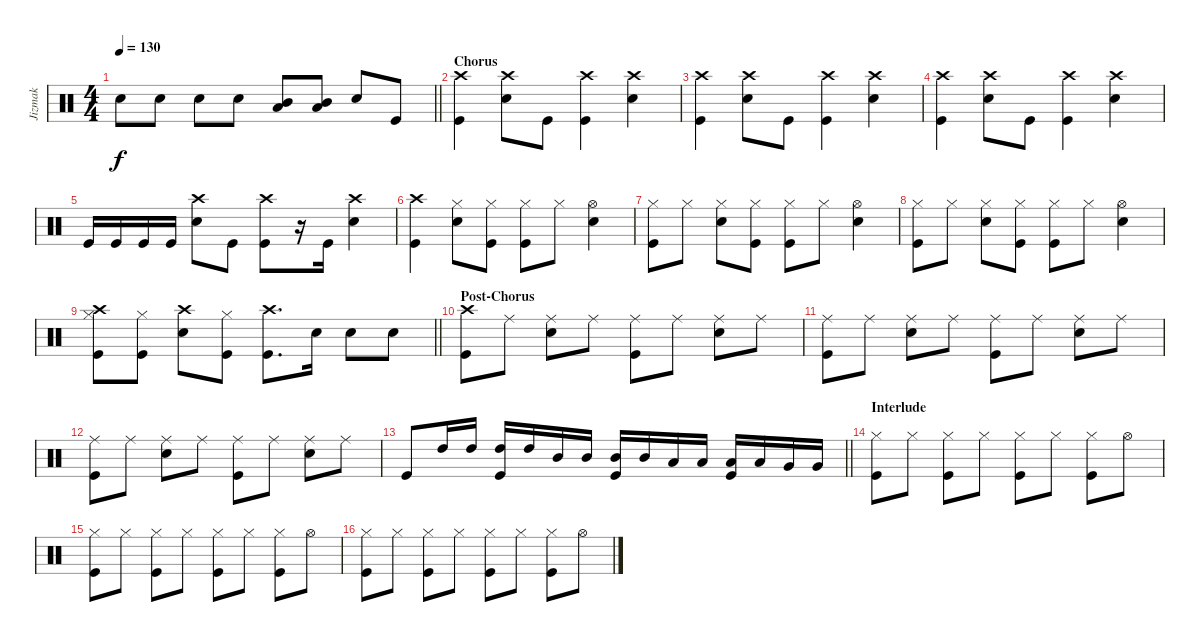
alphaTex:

\track ("Jizmak" "Jizmak") {instrument percussion}
\staff {score}
\articulation defaults
\ts (4 4)
\tempo 130
\clef neutral
\barLineRight lightlight
\ks c "Snare (hit) 2".8{dy f} "Snare (hit) 2".8 "Snare (hit) 2".8 "Snare (hit) 2".8
("Mid Tom (hit)" "Low Tom (hit)").8 ("Mid Tom (hit)" "Low Tom (hit)").8 "Snare (hit) 2".8 "Kick (hit)".8 |
\section ("" "Chorus")
("Crash high (hit)" "Kick (hit)").4 ("Crash high (hit)" "Snare (hit) 2").8 "Kick (hit)".8 ("Crash high (hit)" "Kick (hit)").4 ("Crash high (hit)" "Snare (hit) 2").4 |
("Crash high (hit)" "Kick (hit)").4 ("Crash high (hit)" "Snare (hit) 2").8 "Kick (hit)".8 ("Crash high (hit)" "Kick (hit)").4 ("Crash high (hit)" "Snare (hit) 2").4 |
("Crash high (hit)" "Kick (hit)").4 ("Crash high (hit)" "Snare (hit) 2").8 "Kick (hit)".8 ("Crash high (hit)" "Kick (hit)").4 ("Crash high (hit)" "Snare (hit) 2").4 |
"Kick (hit)".16 "Kick (hit)".16 "Kick (hit)".16 "Kick (hit)".16 ("Crash high (hit)" "Snare (hit) 2").8 "Kick (hit)".8 ("Crash high (hit)" "Kick (hit)").8 r.16 "Kick (hit)".16 ("Crash high (hit)" "Snare (hit) 2").4 |
("Crash high (hit)" "Kick (hit)").4 ("Hi-Hat (closed)" "Snare (hit) 2").8 ("Hi-Hat (closed)" "Kick (hit)").8 ("Hi-Hat (closed)" "Kick (hit)").8 "Hi-Hat (closed)".8 ("Hi-Hat (open)" "Snare (hit) 2").4 |
("Hi-Hat (closed)" "Kick (hit)").8 "Hi-Hat (closed)".8 ("Hi-Hat (closed)" "Snare (hit) 2").8 ("Hi-Hat (closed)" "Kick (hit)").8 ("Hi-Hat (closed)" "Kick (hit)").8 "Hi-Hat (closed)".8 ("Hi-Hat (open)" "Snare (hit) 2").4 |
("Hi-Hat (closed)" "Kick (hit)").8 "Hi-Hat (closed)".8 ("Hi-Hat (closed)" "Snare (hit) 2").8 ("Hi-Hat (closed)" "Kick (hit)").8 ("Hi-Hat (closed)" "Kick (hit)").8 "Hi-Hat (closed)".8 ("Hi-Hat (open)" "Snare (hit) 2").4 |
\barLineRight lightlight
("Crash high (hit)" "Hi-Hat (closed)" "Kick (hit)").8 ("Hi-Hat (closed)" "Kick (hit)").8 ("Crash high (hit)" "Snare (hit) 2").8 ("Hi-Hat (closed)" "Kick (hit)").8 ("Crash high (hit)" "Kick (hit)").8{d} "Snare (hit) 2".16 "Snare (hit) 2".8 "Snare (hit) 2".8 |
\section ("" "Post-Chorus")
("Crash high (hit)" "Kick (hit)").8 "Ride (middle)".8 ("Ride (middle)" "Snare (hit) 2").8 "Ride (middle)".8 ("Ride (middle)" "Kick (hit)").8 "Ride (middle)".8 ("Ride (middle)" "Snare (hit) 2").8 "Ride (middle)".8 |
("Ride (middle)" "Kick (hit)").8 "Ride (middle)".8 ("Ride (middle)" "Snare (hit) 2").8 "Ride (middle)".8 ("Ride (middle)" "Kick (hit)").8 "Ride (middle)".8 ("Ride (middle)" "Snare (hit) 2").8 "Ride (middle)".8 |
("Ride (middle)" "Kick (hit)").8 "Ride (middle)".8 ("Ride (middle)" "Snare (hit) 2").8 "Ride (middle)".8 ("Ride (middle)" "Kick (hit)").8 "Ride (middle)".8 ("Ride (middle)" "Snare (hit) 2").8 "Ride (middle)".8 |
\barLineRight lightlight "Kick (hit)".8 "High Tom (hit)".16 "High Tom (hit)".16
("High Tom (hit)" "Kick (hit)").16 "High Tom (hit)".16 "Mid Tom (hit)".16 "Mid Tom (hit)".16 ("Mid Tom (hit)" "Kick (hit)").16 "Mid Tom (hit)".16 "Low Tom (hit)".16 "Low Tom (hit)".16 ("Low Tom (hit)" "Kick (hit)").16 "Low Tom (hit)".16 "Very Low Tom (hit)".16 "Very Low Tom (hit)".16 |
\section ("" "Interlude")
("Hi-Hat (closed)" "Kick (hit)").8 "Hi-Hat (closed)".8 ("Hi-Hat (closed)" "Kick (hit)").8 "Hi-Hat (closed)".8 ("Hi-Hat (closed)" "Kick (hit)").8 "Hi-Hat (closed)".8 ("Hi-Hat (closed)" "Kick (hit)").8 "Hi-Hat (open)".8 |
("Hi-Hat (closed)" "Kick (hit)").8 "Hi-Hat (closed)".8 ("Hi-Hat (closed)" "Kick (hit)").8 "Hi-Hat (closed)".8 ("Hi-Hat (closed)" "Kick (hit)").8 "Hi-Hat (closed)".8 ("Hi-Hat (closed)" "Kick (hit)").8 "Hi-Hat (open)".8 |
("Hi-Hat (closed)" "Kick (hit)").8 "Hi-Hat (closed)".8 ("Hi-Hat (closed)" "Kick (hit)").8 "Hi-Hat (closed)".8 ("Hi-Hat (closed)" "Kick (hit)").8 "Hi-Hat (closed)".8 ("Hi-Hat (closed)" "Kick (hit)").8 "Hi-Hat (open)".8
